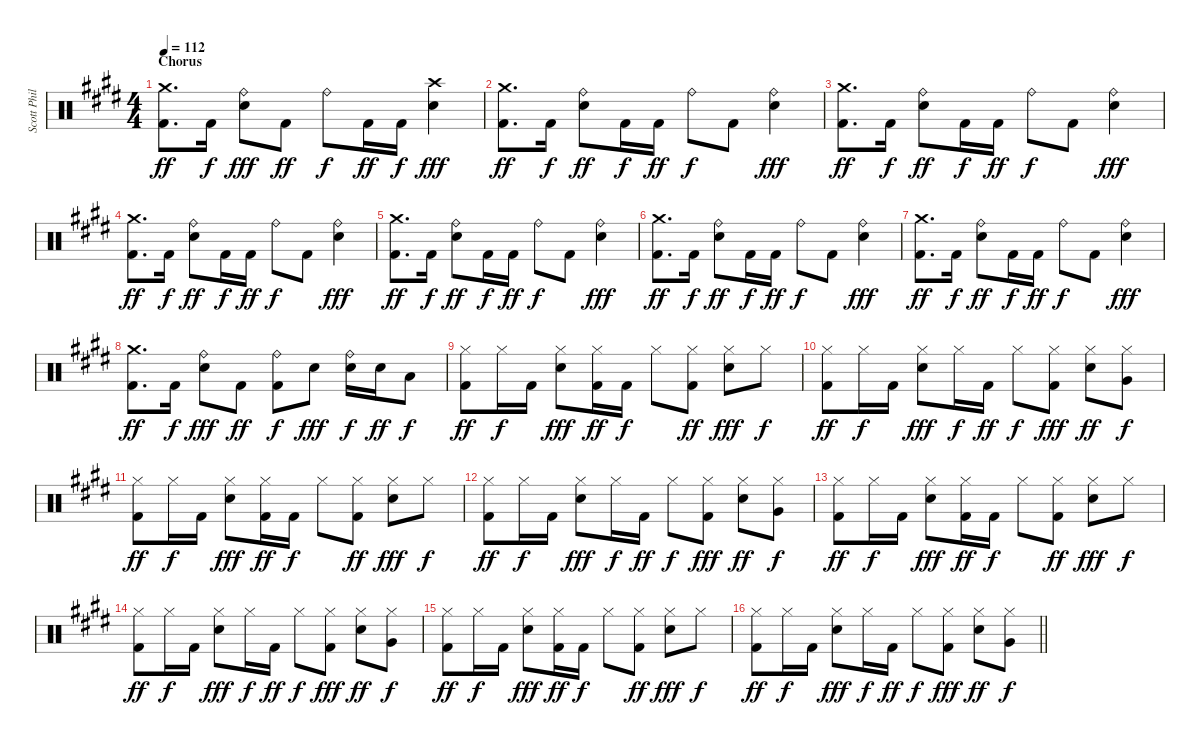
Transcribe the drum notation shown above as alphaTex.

\track ("Scott Phillips" "Scott Phil") {instrument percussion}
\staff {score}
\articulation defaults
\ts (4 4)
\section ("" "Chorus")
\tempo 112
\clef neutral
\ks c#minor
("Crash medium (hit)" "Kick (hit) 2").8{d dy ff} "Kick (hit) 2".16{dy f} ("Ride (bell)" "Electric Snare (hit)").8{dy fff} "Kick (hit) 2".8{dy ff} "Ride (bell)".8{dy f} "Kick (hit) 2".16{dy ff} "Kick (hit) 2".16{dy f} ("Crash high (hit)" "Electric Snare (hit)").4{dy fff} |
("Crash medium (hit)" "Kick (hit) 2").8{d dy ff} "Kick (hit) 2".16{dy f} ("Ride (bell)" "Electric Snare (hit)").8{dy ff} "Kick (hit) 2".16{dy f} "Kick (hit) 2".16{dy ff} "Ride (bell)".8{dy f} "Kick (hit) 2".8 ("Ride (bell)" "Electric Snare (hit)").4{dy fff} |
("Crash medium (hit)" "Kick (hit) 2").8{d dy ff} "Kick (hit) 2".16{dy f} ("Ride (bell)" "Electric Snare (hit)").8{dy ff} "Kick (hit) 2".16{dy f} "Kick (hit) 2".16{dy ff} "Ride (bell)".8{dy f} "Kick (hit) 2".8 ("Ride (bell)" "Electric Snare (hit)").4{dy fff} |
("Crash medium (hit)" "Kick (hit) 2").8{d dy ff} "Kick (hit) 2".16{dy f} ("Ride (bell)" "Electric Snare (hit)").8{dy ff} "Kick (hit) 2".16{dy f} "Kick (hit) 2".16{dy ff} "Ride (bell)".8{dy f} "Kick (hit) 2".8 ("Ride (bell)" "Electric Snare (hit)").4{dy fff} |
("Crash medium (hit)" "Kick (hit) 2").8{d dy ff} "Kick (hit) 2".16{dy f} ("Ride (bell)" "Electric Snare (hit)").8{dy ff} "Kick (hit) 2".16{dy f} "Kick (hit) 2".16{dy ff} "Ride (bell)".8{dy f} "Kick (hit) 2".8 ("Ride (bell)" "Electric Snare (hit)").4{dy fff} |
("Crash medium (hit)" "Kick (hit) 2").8{d dy ff} "Kick (hit) 2".16{dy f} ("Ride (bell)" "Electric Snare (hit)").8{dy ff} "Kick (hit) 2".16{dy f} "Kick (hit) 2".16{dy ff} "Ride (bell)".8{dy f} "Kick (hit) 2".8 ("Ride (bell)" "Electric Snare (hit)").4{dy fff} |
("Crash medium (hit)" "Kick (hit) 2").8{d dy ff} "Kick (hit) 2".16{dy f} ("Ride (bell)" "Electric Snare (hit)").8{dy ff} "Kick (hit) 2".16{dy f} "Kick (hit) 2".16{dy ff} "Ride (bell)".8{dy f} "Kick (hit) 2".8 ("Ride (bell)" "Electric Snare (hit)").4{dy fff} |
("Crash medium (hit)" "Kick (hit) 2").8{d dy ff} "Kick (hit) 2".16{dy f} ("Ride (bell)" "Electric Snare (hit)").8{dy fff} "Kick (hit) 2".8{dy ff} ("Ride (bell)" "Kick (hit) 2").8{dy f} "Electric Snare (hit)".8{dy fff} ("Ride (bell)" "Electric Snare (hit)").16{dy f} "Electric Snare (hit)".16{dy ff} "Low Floor Tom (hit)".8{dy f} |
("Hi-Hat (closed)" "Kick (hit) 2").8{dy ff} "Hi-Hat (closed)".16{dy f} "Kick (hit) 2".16 ("Hi-Hat (closed)" "Electric Snare (hit)").8{dy fff} ("Hi-Hat (closed)" "Kick (hit) 2").16{dy ff} "Kick (hit) 2".16{dy f} "Hi-Hat (closed)".8 ("Hi-Hat (closed)" "Kick (hit) 2").8{dy ff} ("Hi-Hat (closed)" "Electric Snare (hit)").8{dy fff} "Hi-Hat (closed)".8{dy f} |
("Hi-Hat (closed)" "Kick (hit) 2").8{dy ff} "Hi-Hat (closed)".16{dy f} "Kick (hit) 2".16 ("Hi-Hat (closed)" "Electric Snare (hit)").8{dy fff} "Hi-Hat (closed)".16{dy f} "Kick (hit) 2".16{dy ff} "Hi-Hat (closed)".8{dy f} ("Hi-Hat (closed)" "Kick (hit) 2").8{dy fff} ("Hi-Hat (closed)" "Electric Snare (hit)").8{dy ff} ("Hi-Hat (closed)" "Very Low Tom (hit)").8{dy f} |
("Hi-Hat (closed)" "Kick (hit) 2").8{dy ff} "Hi-Hat (closed)".16{dy f} "Kick (hit) 2".16 ("Hi-Hat (closed)" "Electric Snare (hit)").8{dy fff} ("Hi-Hat (closed)" "Kick (hit) 2").16{dy ff} "Kick (hit) 2".16{dy f} "Hi-Hat (closed)".8 ("Hi-Hat (closed)" "Kick (hit) 2").8{dy ff} ("Hi-Hat (closed)" "Electric Snare (hit)").8{dy fff} "Hi-Hat (closed)".8{dy f} |
("Hi-Hat (closed)" "Kick (hit) 2").8{dy ff} "Hi-Hat (closed)".16{dy f} "Kick (hit) 2".16 ("Hi-Hat (closed)" "Electric Snare (hit)").8{dy fff} "Hi-Hat (closed)".16{dy f} "Kick (hit) 2".16{dy ff} "Hi-Hat (closed)".8{dy f} ("Hi-Hat (closed)" "Kick (hit) 2").8{dy fff} ("Hi-Hat (closed)" "Electric Snare (hit)").8{dy ff} ("Hi-Hat (closed)" "Very Low Tom (hit)").8{dy f} |
("Hi-Hat (closed)" "Kick (hit) 2").8{dy ff} "Hi-Hat (closed)".16{dy f} "Kick (hit) 2".16 ("Hi-Hat (closed)" "Electric Snare (hit)").8{dy fff} ("Hi-Hat (closed)" "Kick (hit) 2").16{dy ff} "Kick (hit) 2".16{dy f} "Hi-Hat (closed)".8 ("Hi-Hat (closed)" "Kick (hit) 2").8{dy ff} ("Hi-Hat (closed)" "Electric Snare (hit)").8{dy fff} "Hi-Hat (closed)".8{dy f} |
("Hi-Hat (closed)" "Kick (hit) 2").8{dy ff} "Hi-Hat (closed)".16{dy f} "Kick (hit) 2".16 ("Hi-Hat (closed)" "Electric Snare (hit)").8{dy fff} "Hi-Hat (closed)".16{dy f} "Kick (hit) 2".16{dy ff} "Hi-Hat (closed)".8{dy f} ("Hi-Hat (closed)" "Kick (hit) 2").8{dy fff} ("Hi-Hat (closed)" "Electric Snare (hit)").8{dy ff} ("Hi-Hat (closed)" "Very Low Tom (hit)").8{dy f} |
("Hi-Hat (closed)" "Kick (hit) 2").8{dy ff} "Hi-Hat (closed)".16{dy f} "Kick (hit) 2".16 ("Hi-Hat (closed)" "Electric Snare (hit)").8{dy fff} ("Hi-Hat (closed)" "Kick (hit) 2").16{dy ff} "Kick (hit) 2".16{dy f} "Hi-Hat (closed)".8 ("Hi-Hat (closed)" "Kick (hit) 2").8{dy ff} ("Hi-Hat (closed)" "Electric Snare (hit)").8{dy fff} "Hi-Hat (closed)".8{dy f} |
\barLineRight lightlight
("Hi-Hat (closed)" "Kick (hit) 2").8{dy ff} "Hi-Hat (closed)".16{dy f} "Kick (hit) 2".16 ("Hi-Hat (closed)" "Electric Snare (hit)").8{dy fff} "Hi-Hat (closed)".16{dy f} "Kick (hit) 2".16{dy ff} "Hi-Hat (closed)".8{dy f} ("Hi-Hat (closed)" "Kick (hit) 2").8{dy fff} ("Hi-Hat (closed)" "Electric Snare (hit)").8{dy ff} ("Hi-Hat (closed)" "Very Low Tom (hit)").8{dy f}
